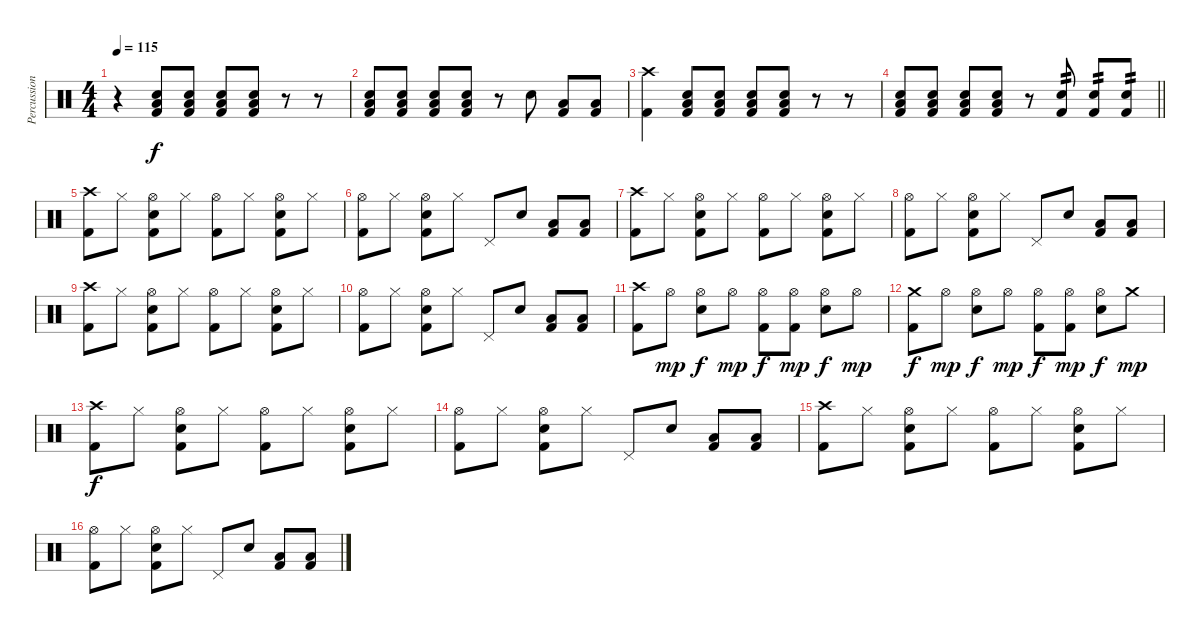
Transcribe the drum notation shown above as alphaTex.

\track ("Percussion" "Percussion") {instrument percussion}
\staff {score}
\articulation defaults
\ts (4 4)
\tempo 115
\clef neutral
\ks c
r.4{dy f} ("Low Floor Tom (hit)" "Electric Snare (hit)" "Kick (hit) 2").8 ("Low Floor Tom (hit)" "Electric Snare (hit)" "Kick (hit) 2").8 ("Low Floor Tom (hit)" "Electric Snare (hit)" "Kick (hit) 2").8 ("Low Floor Tom (hit)" "Electric Snare (hit)" "Kick (hit) 2").8 r.8 r.8 |
("Low Floor Tom (hit)" "Electric Snare (hit)" "Kick (hit) 2").8 ("Low Floor Tom (hit)" "Electric Snare (hit)" "Kick (hit) 2").8 ("Low Floor Tom (hit)" "Electric Snare (hit)" "Kick (hit) 2").8 ("Low Floor Tom (hit)" "Electric Snare (hit)" "Kick (hit) 2").8 r.8 "Electric Snare (hit)".8 ("Low Tom (hit)" "Kick (hit) 2").8 ("Low Floor Tom (hit)" "Kick (hit) 2").8 |
("Crash high (hit)" "Kick (hit) 2").4 ("Low Floor Tom (hit)" "Electric Snare (hit)" "Kick (hit) 2").8 ("Low Floor Tom (hit)" "Electric Snare (hit)" "Kick (hit) 2").8 ("Low Floor Tom (hit)" "Electric Snare (hit)" "Kick (hit) 2").8 ("Low Floor Tom (hit)" "Electric Snare (hit)" "Kick (hit) 2").8 r.8 r.8 |
\barLineRight lightlight
("Low Floor Tom (hit)" "Electric Snare (hit)" "Kick (hit) 2").8 ("Low Floor Tom (hit)" "Electric Snare (hit)" "Kick (hit) 2").8 ("Low Floor Tom (hit)" "Electric Snare (hit)" "Kick (hit) 2").8 ("Low Floor Tom (hit)" "Electric Snare (hit)" "Kick (hit) 2").8 r.8 ("Electric Snare (hit)" "Kick (hit) 2").8{tp 2} ("Electric Snare (hit)" "Kick (hit) 2").8{tp 2} ("Electric Snare (hit)" "Kick (hit) 2").8{tp 2} |
("Crash high (hit)" "Kick (hit) 2").8 "Hi-Hat (closed)".8 ("Hi-Hat (open)" "Electric Snare (hit)" "Kick (hit) 2").8 "Hi-Hat (closed)".8 ("Hi-Hat (open)" "Kick (hit) 2").8 "Hi-Hat (closed)".8 ("Hi-Hat (open)" "Electric Snare (hit)" "Kick (hit) 2").8 "Hi-Hat (closed)".8 |
("Hi-Hat (open)" "Kick (hit) 2").8 "Hi-Hat (closed)".8 ("Hi-Hat (open)" "Electric Snare (hit)" "Kick (hit) 2").8 "Hi-Hat (closed)".8 "Pedal Hi-Hat (hit)".8 "Electric Snare (hit)".8 ("Low Tom (hit)" "Kick (hit) 2").8 ("Low Floor Tom (hit)" "Kick (hit) 2").8 |
("Crash high (hit)" "Kick (hit) 2").8 "Hi-Hat (closed)".8 ("Hi-Hat (open)" "Electric Snare (hit)" "Kick (hit) 2").8 "Hi-Hat (closed)".8 ("Hi-Hat (open)" "Kick (hit) 2").8 "Hi-Hat (closed)".8 ("Hi-Hat (open)" "Electric Snare (hit)" "Kick (hit) 2").8 "Hi-Hat (closed)".8 |
("Hi-Hat (open)" "Kick (hit) 2").8 "Hi-Hat (closed)".8 ("Hi-Hat (open)" "Electric Snare (hit)" "Kick (hit) 2").8 "Hi-Hat (closed)".8 "Pedal Hi-Hat (hit)".8 "Electric Snare (hit)".8 ("Low Tom (hit)" "Kick (hit) 2").8 ("Low Floor Tom (hit)" "Kick (hit) 2").8 |
("Crash high (hit)" "Kick (hit) 2").8 "Hi-Hat (closed)".8 ("Hi-Hat (open)" "Electric Snare (hit)" "Kick (hit) 2").8 "Hi-Hat (closed)".8 ("Hi-Hat (open)" "Kick (hit) 2").8 "Hi-Hat (closed)".8 ("Hi-Hat (open)" "Electric Snare (hit)" "Kick (hit) 2").8 "Hi-Hat (closed)".8 |
("Hi-Hat (open)" "Kick (hit) 2").8 "Hi-Hat (closed)".8 ("Hi-Hat (open)" "Electric Snare (hit)" "Kick (hit) 2").8 "Hi-Hat (closed)".8 "Pedal Hi-Hat (hit)".8 "Electric Snare (hit)".8 ("Low Tom (hit)" "Kick (hit) 2").8 ("Low Floor Tom (hit)" "Kick (hit) 2").8 |
("Crash high (hit)" "Kick (hit) 2").8 "Hi-Hat (open)".8{dy mp} ("Hi-Hat (open)" "Electric Snare (hit)").8{dy f} "Hi-Hat (open)".8{dy mp} ("Hi-Hat (open)" "Kick (hit) 2").8{dy f} ("Hi-Hat (open)" "Kick (hit) 2").8{dy mp} ("Hi-Hat (open)" "Electric Snare (hit)").8{dy f} "Hi-Hat (open)".8{dy mp} |
("Crash medium (hit)" "Kick (hit) 2").8{dy f} "Hi-Hat (open)".8{dy mp} ("Hi-Hat (open)" "Electric Snare (hit)").8{dy f} "Hi-Hat (open)".8{dy mp} ("Hi-Hat (open)" "Kick (hit) 2").8{dy f} ("Hi-Hat (open)" "Kick (hit) 2").8{dy mp} ("Hi-Hat (open)" "Electric Snare (hit)").8{dy f} "Crash medium (hit)".8{dy mp} |
("Crash high (hit)" "Kick (hit) 2").8{dy f} "Hi-Hat (closed)".8 ("Hi-Hat (open)" "Electric Snare (hit)" "Kick (hit) 2").8 "Hi-Hat (closed)".8 ("Hi-Hat (open)" "Kick (hit) 2").8 "Hi-Hat (closed)".8 ("Hi-Hat (open)" "Electric Snare (hit)" "Kick (hit) 2").8 "Hi-Hat (closed)".8 |
("Hi-Hat (open)" "Kick (hit) 2").8 "Hi-Hat (closed)".8 ("Hi-Hat (open)" "Electric Snare (hit)" "Kick (hit) 2").8 "Hi-Hat (closed)".8 "Pedal Hi-Hat (hit)".8 "Electric Snare (hit)".8 ("Low Tom (hit)" "Kick (hit) 2").8 ("Low Floor Tom (hit)" "Kick (hit) 2").8 |
("Crash high (hit)" "Kick (hit) 2").8 "Hi-Hat (closed)".8 ("Hi-Hat (open)" "Electric Snare (hit)" "Kick (hit) 2").8 "Hi-Hat (closed)".8 ("Hi-Hat (open)" "Kick (hit) 2").8 "Hi-Hat (closed)".8 ("Hi-Hat (open)" "Electric Snare (hit)" "Kick (hit) 2").8 "Hi-Hat (closed)".8 |
("Hi-Hat (open)" "Kick (hit) 2").8 "Hi-Hat (closed)".8 ("Hi-Hat (open)" "Electric Snare (hit)" "Kick (hit) 2").8 "Hi-Hat (closed)".8 "Pedal Hi-Hat (hit)".8 "Electric Snare (hit)".8 ("Low Tom (hit)" "Kick (hit) 2").8 ("Low Floor Tom (hit)" "Kick (hit) 2").8
